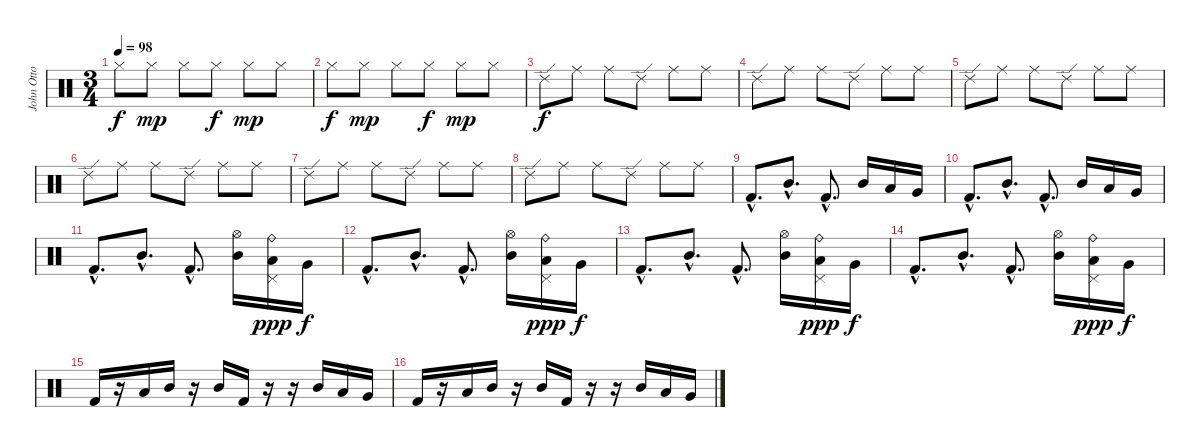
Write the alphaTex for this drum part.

\track ("John Otto - Drums" "John Otto ") {instrument percussion}
\staff {score}
\articulation defaults
\ts (3 4)
\tempo 98
\clef neutral
\ks c "Hi-Hat (closed)".8{dy f} "Hi-Hat (closed)".8{dy mp} "Hi-Hat (closed)".8 "Hi-Hat (closed)".8{dy f} "Hi-Hat (closed)".8{dy mp} "Hi-Hat (closed)".8
|
"Hi-Hat (closed)".8{dy f} "Hi-Hat (closed)".8{dy mp} "Hi-Hat (closed)".8 "Hi-Hat (closed)".8{dy f} "Hi-Hat (closed)".8{dy mp} "Hi-Hat (closed)".8 |
"Ride (edge) 2".8{dy f} "Ride (middle)".8 "Ride (middle)".8 "Ride (edge) 2".8 "Ride (middle)".8 "Ride (middle)".8 |
"Ride (edge) 2".8 "Ride (middle)".8 "Ride (middle)".8 "Ride (edge) 2".8 "Ride (middle)".8 "Ride (middle)".8 |
"Ride (edge) 2".8 "Ride (middle)".8 "Ride (middle)".8 "Ride (edge) 2".8 "Ride (middle)".8 "Ride (middle)".8 |
"Ride (edge) 2".8 "Ride (middle)".8 "Ride (middle)".8 "Ride (edge) 2".8 "Ride (middle)".8 "Ride (middle)".8 |
"Ride (edge) 2".8 "Ride (middle)".8 "Ride (middle)".8 "Ride (edge) 2".8 "Ride (middle)".8 "Ride (middle)".8 |
"Ride (edge) 2".8 "Ride (middle)".8 "Ride (middle)".8 "Ride (edge) 2".8 "Ride (middle)".8 "Ride (middle)".8 |
"Kick (hit) 2"{hac}.8{d} "Mid Tom (hit)"{hac}.8{d} "Kick (hit) 2"{hac}.8{d} "Mid Tom (hit)".16 "Low Tom (hit)".16 "Very Low Tom (hit)".16 |
"Kick (hit) 2"{hac}.8{d} "Mid Tom (hit)"{hac}.8{d} "Kick (hit) 2"{hac}.8{d} "Mid Tom (hit)".16 "Low Tom (hit)".16 "Very Low Tom (hit)".16 |
"Kick (hit) 2"{hac}.8{d} "Mid Tom (hit)"{hac}.8{d} "Kick (hit) 2"{hac}.8{d} ("Hi-Hat (open)" "Mid Tom (hit)").16 ("Ride (bell)" "Pedal Hi-Hat (hit)" "Low Tom (hit)").16{dy ppp} "Very Low Tom (hit)".16{dy f} |
"Kick (hit) 2"{hac}.8{d} "Mid Tom (hit)"{hac}.8{d} "Kick (hit) 2"{hac}.8{d} ("Hi-Hat (open)" "Mid Tom (hit)").16 ("Ride (bell)" "Pedal Hi-Hat (hit)" "Low Tom (hit)").16{dy ppp} "Very Low Tom (hit)".16{dy f} |
"Kick (hit) 2"{hac}.8{d} "Mid Tom (hit)"{hac}.8{d} "Kick (hit) 2"{hac}.8{d} ("Hi-Hat (open)" "Mid Tom (hit)").16 ("Ride (bell)" "Pedal Hi-Hat (hit)" "Low Tom (hit)").16{dy ppp} "Very Low Tom (hit)".16{dy f} |
"Kick (hit) 2"{hac}.8{d} "Mid Tom (hit)"{hac}.8{d} "Kick (hit) 2"{hac}.8{d} ("Hi-Hat (open)" "Mid Tom (hit)").16 ("Ride (bell)" "Pedal Hi-Hat (hit)" "Low Tom (hit)").16{dy ppp} "Very Low Tom (hit)".16{dy f} |
"Kick (hit) 2".16 r.16 "Low Tom (hit)".16 "Mid Tom (hit)".16 r.16 "Mid Tom (hit)".16 "Kick (hit) 2".16 r.16 r.16 "Mid Tom (hit)".16 "Low Tom (hit)".16 "Very Low Tom (hit)".16 |
"Kick (hit) 2".16 r.16 "Low Tom (hit)".16 "Mid Tom (hit)".16 r.16 "Mid Tom (hit)".16 "Kick (hit) 2".16 r.16 r.16 "Mid Tom (hit)".16 "Low Tom (hit)".16 "Very Low Tom (hit)".16
